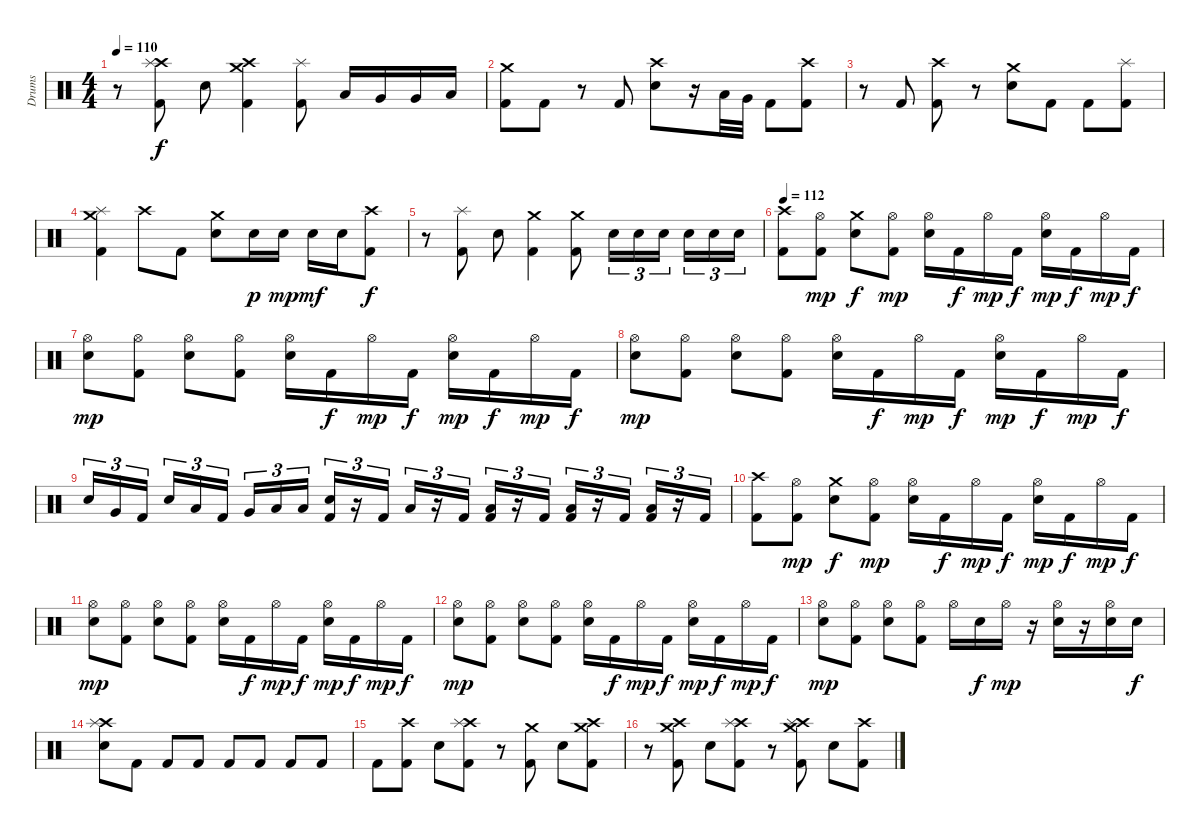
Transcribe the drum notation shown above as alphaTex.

\track ("Drums" "Drums") {instrument percussion}
\staff {score}
\articulation defaults
\ts (4 4)
\tempo 110
\clef neutral
\ks c
r.8{dy f} ("Crash high (hit)" "Splash (hit)" "Kick (hit) 2").8 "Electric Snare (hit)".8 ("Crash high (hit)" "Crash medium (hit)" "Kick (hit) 2").4 ("Splash (hit)" "Kick (hit) 2").8 "Low Tom (hit)".16 "Very Low Tom (hit)".16 "Very Low Tom (hit)".16 "Low Floor Tom (hit)".16 |
("Crash medium (hit)" "Kick (hit) 2").8 "Kick (hit) 2".8 r.8 "Kick (hit) 2".8 ("Crash high (hit)" "Electric Snare (hit)").8 r.16 "Low Tom (hit)".32 "Very Low Tom (hit)".32 "Kick (hit) 2".8 ("Crash high (hit)" "Kick (hit) 2").8 |
r.8 "Kick (hit) 2".8 ("Crash high (hit)" "Kick (hit) 2").8 r.8 ("Crash medium (hit)" "Electric Snare (hit)").8 "Kick (hit) 2".8 "Kick (hit) 2".8 ("Splash (hit)" "Kick (hit) 2").8 |
("Crash medium (hit)" "Splash (hit)" "Kick (hit) 2").4 "Crash high (hit)".8 "Kick (hit) 2".8 ("Crash medium (hit)" "Electric Snare (hit)").8 "Electric Snare (hit)".16{dy p} "Electric Snare (hit)".16{dy mp} "Electric Snare (hit)".16{dy mf} "Electric Snare (hit)".16 ("Crash high (hit)" "Kick (hit) 2").8{dy f} |
r.8 ("Splash (hit)" "Kick (hit) 2").8 "Electric Snare (hit)".8 ("Crash medium (hit)" "Kick (hit) 2").4 ("Crash medium (hit)" "Kick (hit) 2").8 "Electric Snare (hit)".16{tu (3 2)} "Electric Snare (hit)".16{tu (3 2)} "Electric Snare (hit)".16{tu (3 2)} "Electric Snare (hit)".16{tu (3 2)} "Electric Snare (hit)".16{tu (3 2)} "Electric Snare (hit)".16{tu (3 2)} |
\tempo 112
("Crash high (hit)" "Kick (hit) 2").8 ("Hi-Hat (open)" "Kick (hit) 2").8{dy mp} ("Crash medium (hit)" "Electric Snare (hit)").8{dy f} ("Hi-Hat (open)" "Kick (hit) 2").8{dy mp} ("Hi-Hat (open)" "Electric Snare (hit)").16 "Kick (hit) 2".16{dy f} "Hi-Hat (open)".16{dy mp} "Kick (hit) 2".16{dy f} ("Hi-Hat (open)" "Electric Snare (hit)").16{dy mp} "Kick (hit) 2".16{dy f} "Hi-Hat (open)".16{dy mp} "Kick (hit) 2".16{dy f} |
("Hi-Hat (open)" "Electric Snare (hit)").8{dy mp} ("Hi-Hat (open)" "Kick (hit) 2").8 ("Hi-Hat (open)" "Electric Snare (hit)").8 ("Hi-Hat (open)" "Kick (hit) 2").8 ("Hi-Hat (open)" "Electric Snare (hit)").16 "Kick (hit) 2".16{dy f} "Hi-Hat (open)".16{dy mp} "Kick (hit) 2".16{dy f} ("Hi-Hat (open)" "Electric Snare (hit)").16{dy mp} "Kick (hit) 2".16{dy f} "Hi-Hat (open)".16{dy mp} "Kick (hit) 2".16{dy f} |
("Hi-Hat (open)" "Electric Snare (hit)").8{dy mp} ("Hi-Hat (open)" "Kick (hit) 2").8 ("Hi-Hat (open)" "Electric Snare (hit)").8 ("Hi-Hat (open)" "Kick (hit) 2").8 ("Hi-Hat (open)" "Electric Snare (hit)").16 "Kick (hit) 2".16{dy f} "Hi-Hat (open)".16{dy mp} "Kick (hit) 2".16{dy f} ("Hi-Hat (open)" "Electric Snare (hit)").16{dy mp} "Kick (hit) 2".16{dy f} "Hi-Hat (open)".16{dy mp} "Kick (hit) 2".16{dy f} |
"Electric Snare (hit)".16{tu (3 2)} "Very Low Tom (hit)".16{tu (3 2)} "Kick (hit) 2".16{tu (3 2)} "Electric Snare (hit)".16{tu (3 2)} "Low Floor Tom (hit)".16{tu (3 2)} "Kick (hit) 2".16{tu (3 2)} "Very Low Tom (hit)".16{tu (3 2)} "Low Floor Tom (hit)".16{tu (3 2)} "Low Floor Tom (hit)".16{tu (3 2)} ("Electric Snare (hit)" "Kick (hit) 2").16{tu (3 2)} r.16{tu (3 2)} "Kick (hit) 2".16{tu (3 2)} "Low Floor Tom (hit)".16{tu (3 2)} r.16{tu (3 2)} "Kick (hit) 2".16{tu (3 2)} ("Low Floor Tom (hit)" "Kick (hit) 2").16{tu (3 2)} r.16{tu (3 2)} "Kick (hit) 2".16{tu (3 2)} ("Low Floor Tom (hit)" "Kick (hit) 2").16{tu (3 2)} r.16{tu (3 2)} "Kick (hit) 2".16{tu (3 2)} ("Low Floor Tom (hit)" "Kick (hit) 2").16{tu (3 2)} r.16{tu (3 2)} "Kick (hit) 2".16{tu (3 2)} |
("Crash high (hit)" "Kick (hit) 2").8 ("Hi-Hat (open)" "Kick (hit) 2").8{dy mp} ("Crash medium (hit)" "Electric Snare (hit)").8{dy f} ("Hi-Hat (open)" "Kick (hit) 2").8{dy mp} ("Hi-Hat (open)" "Electric Snare (hit)").16 "Kick (hit) 2".16{dy f} "Hi-Hat (open)".16{dy mp} "Kick (hit) 2".16{dy f} ("Hi-Hat (open)" "Electric Snare (hit)").16{dy mp} "Kick (hit) 2".16{dy f} "Hi-Hat (open)".16{dy mp} "Kick (hit) 2".16{dy f} |
("Hi-Hat (open)" "Electric Snare (hit)").8{dy mp} ("Hi-Hat (open)" "Kick (hit) 2").8 ("Hi-Hat (open)" "Electric Snare (hit)").8 ("Hi-Hat (open)" "Kick (hit) 2").8 ("Hi-Hat (open)" "Electric Snare (hit)").16 "Kick (hit) 2".16{dy f} "Hi-Hat (open)".16{dy mp} "Kick (hit) 2".16{dy f} ("Hi-Hat (open)" "Electric Snare (hit)").16{dy mp} "Kick (hit) 2".16{dy f} "Hi-Hat (open)".16{dy mp} "Kick (hit) 2".16{dy f} |
("Hi-Hat (open)" "Electric Snare (hit)").8{dy mp} ("Hi-Hat (open)" "Kick (hit) 2").8 ("Hi-Hat (open)" "Electric Snare (hit)").8 ("Hi-Hat (open)" "Kick (hit) 2").8 ("Hi-Hat (open)" "Electric Snare (hit)").16 "Kick (hit) 2".16{dy f} "Hi-Hat (open)".16{dy mp} "Kick (hit) 2".16{dy f} ("Hi-Hat (open)" "Electric Snare (hit)").16{dy mp} "Kick (hit) 2".16{dy f} "Hi-Hat (open)".16{dy mp} "Kick (hit) 2".16{dy f} |
("Hi-Hat (open)" "Electric Snare (hit)").8{dy mp} ("Hi-Hat (open)" "Kick (hit) 2").8 ("Hi-Hat (open)" "Electric Snare (hit)").8 ("Hi-Hat (open)" "Kick (hit) 2").8 "Hi-Hat (open)".16 "Electric Snare (hit)".16{dy f} "Hi-Hat (open)".16{dy mp} r.16 ("Hi-Hat (open)" "Electric Snare (hit)").16 r.16 ("Hi-Hat (open)" "Electric Snare (hit)").16 "Electric Snare (hit)".16{dy f} |
("Crash high (hit)" "Splash (hit)" "Electric Snare (hit)").8 "Kick (hit) 2".8 "Kick (hit) 2".8 "Kick (hit) 2".8 "Kick (hit) 2".8 "Kick (hit) 2".8 "Kick (hit) 2".8 "Kick (hit) 2".8 |
"Kick (hit) 2".8 ("Crash high (hit)" "Kick (hit) 2").8 "Electric Snare (hit)".8 ("Crash high (hit)" "Splash (hit)" "Kick (hit) 2").8 r.8 ("Crash medium (hit)" "Kick (hit) 2").8 "Electric Snare (hit)".8 ("Crash high (hit)" "Crash medium (hit)" "Kick (hit) 2").8 |
r.8 ("Crash high (hit)" "Crash medium (hit)" "Kick (hit) 2").8 "Electric Snare (hit)".8 ("Crash high (hit)" "Splash (hit)" "Kick (hit) 2").8 r.8 ("Crash high (hit)" "Crash medium (hit)" "Splash (hit)" "Kick (hit) 2").8 "Electric Snare (hit)".8 ("Crash high (hit)" "Kick (hit) 2").8
